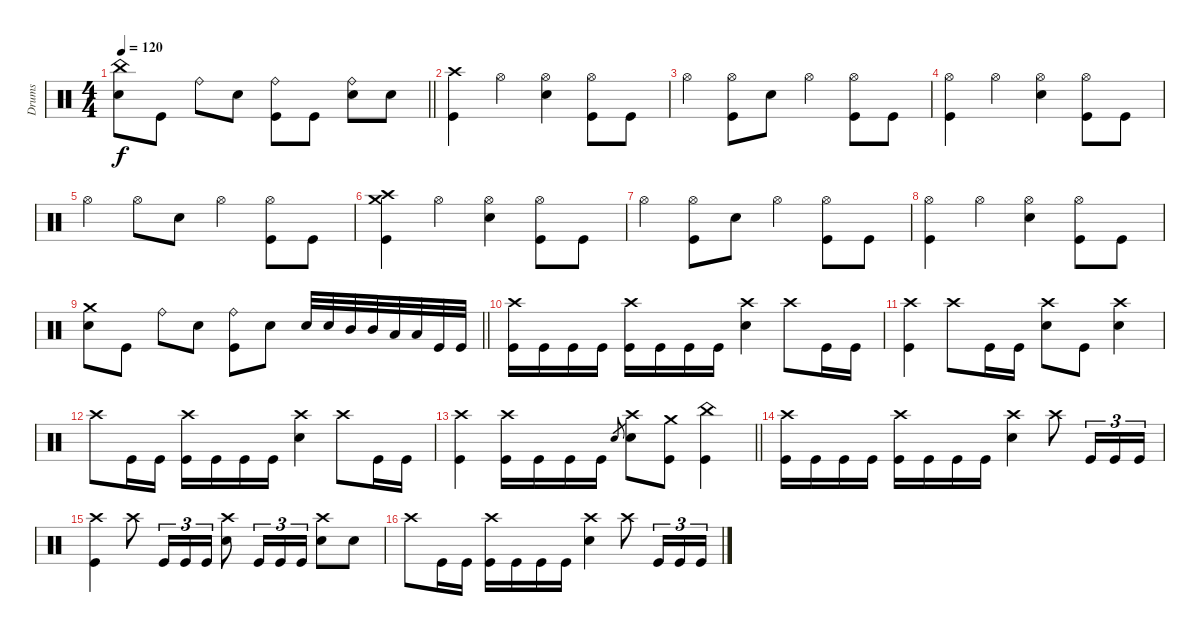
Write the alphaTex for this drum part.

\track ("Drums" "Drums") {instrument percussion}
\staff
\articulation defaults
\ts (4 4)
\tempo 120
\clef neutral
\barLineRight lightlight
\ks c
("China (hit)" "Electric Snare (hit)").8{dy f} "Kick (hit)".8 "Ride (bell)".8 "Electric Snare (hit)".8 ("Ride (bell)" "Kick (hit)").8 "Kick (hit)".8 ("Ride (bell)" "Electric Snare (hit)").8 "Electric Snare (hit)".8 |
("Crash high (hit)" "Kick (hit)").4 "Hi-Hat (open)".4 ("Hi-Hat (open)" "Electric Snare (hit)").4 ("Hi-Hat (open)" "Kick (hit)").8 "Kick (hit)".8 |
"Hi-Hat (open)".4 ("Hi-Hat (open)" "Kick (hit)").8 "Electric Snare (hit)".8 "Hi-Hat (open)".4 ("Hi-Hat (open)" "Kick (hit)").8 "Kick (hit)".8 |
("Hi-Hat (open)" "Kick (hit)").4 "Hi-Hat (open)".4 ("Hi-Hat (open)" "Electric Snare (hit)").4 ("Hi-Hat (open)" "Kick (hit)").8 "Kick (hit)".8 |
"Hi-Hat (open)".4 "Hi-Hat (open)".8 "Electric Snare (hit)".8 "Hi-Hat (open)".4 ("Hi-Hat (open)" "Kick (hit)").8 "Kick (hit)".8 |
("Crash high (hit)" "Crash medium (hit)" "Kick (hit)").4 "Hi-Hat (open)".4 ("Hi-Hat (open)" "Electric Snare (hit)").4 ("Hi-Hat (open)" "Kick (hit)").8 "Kick (hit)".8 |
"Hi-Hat (open)".4 ("Hi-Hat (open)" "Kick (hit)").8 "Electric Snare (hit)".8 "Hi-Hat (open)".4 ("Hi-Hat (open)" "Kick (hit)").8 "Kick (hit)".8 |
("Hi-Hat (open)" "Kick (hit)").4 "Hi-Hat (open)".4 ("Hi-Hat (open)" "Electric Snare (hit)").4 ("Hi-Hat (open)" "Kick (hit)").8 "Kick (hit)".8 |
\barLineRight lightlight
("Crash medium (hit)" "Electric Snare (hit)").8 "Kick (hit)".8 "Ride (bell)".8 "Electric Snare (hit)".8 ("Ride (bell)" "Kick (hit)").8 "Electric Snare (hit)".8 "Electric Snare (hit)".32 "Electric Snare (hit)".32 "Mid Tom (hit)".32 "Mid Tom (hit)".32 "Low Tom (hit)".32 "Low Tom (hit)".32 "Kick (hit)".32 "Kick (hit)".32 |
\section ("" "")
("Crash high (hit)" "Kick (hit)").16 "Kick (hit)".16 "Kick (hit)".16 "Kick (hit)".16 ("Crash high (hit)" "Kick (hit)").16 "Kick (hit)".16 "Kick (hit)".16 "Kick (hit)".16 ("Crash high (hit)" "Electric Snare (hit)").4 "Crash high (hit)".8 "Kick (hit)".16 "Kick (hit)".16 |
("Crash high (hit)" "Kick (hit)").4 "Crash high (hit)".8 "Kick (hit)".16 "Kick (hit)".16 ("Crash high (hit)" "Electric Snare (hit)").8 "Kick (hit)".8 ("Crash high (hit)" "Electric Snare (hit)").4 |
"Crash high (hit)".8 "Kick (hit)".16 "Kick (hit)".16 ("Crash high (hit)" "Kick (hit)").16 "Kick (hit)".16 "Kick (hit)".16 "Kick (hit)".16 ("Crash high (hit)" "Electric Snare (hit)").4 "Crash high (hit)".8 "Kick (hit)".16 "Kick (hit)".16 |
\barLineRight lightlight
("Crash high (hit)" "Kick (hit)").4 ("Crash high (hit)" "Kick (hit)").16 "Kick (hit)".16 "Kick (hit)".16 "Kick (hit)".16 "Electric Snare (hit)".8{gr} ("Crash high (hit)" "Electric Snare (hit)").8 ("Crash medium (hit)" "Kick (hit)").8 ("China (hit)" "Kick (hit)").4 |
("Crash high (hit)" "Kick (hit)").16 "Kick (hit)".16 "Kick (hit)".16 "Kick (hit)".16 ("Crash high (hit)" "Kick (hit)").16 "Kick (hit)".16 "Kick (hit)".16 "Kick (hit)".16 ("Crash high (hit)" "Electric Snare (hit)").4 "Crash high (hit)".8 "Kick (hit)".16{tu (3 2)} "Kick (hit)".16{tu (3 2)} "Kick (hit)".16{tu (3 2)} |
("Crash high (hit)" "Kick (hit)").4 "Crash high (hit)".8 "Kick (hit)".16{tu (3 2)} "Kick (hit)".16{tu (3 2)} "Kick (hit)".16{tu (3 2)} ("Crash high (hit)" "Electric Snare (hit)").8 "Kick (hit)".16{tu (3 2)} "Kick (hit)".16{tu (3 2)} "Kick (hit)".16{tu (3 2)} ("Crash high (hit)" "Electric Snare (hit)").8 "Electric Snare (hit)".8 |
"Crash high (hit)".8 "Kick (hit)".16 "Kick (hit)".16 ("Crash high (hit)" "Kick (hit)").16 "Kick (hit)".16 "Kick (hit)".16 "Kick (hit)".16 ("Crash high (hit)" "Electric Snare (hit)").4 "Crash high (hit)".8 "Kick (hit)".16{tu (3 2)} "Kick (hit)".16{tu (3 2)} "Kick (hit)".16{tu (3 2)}
